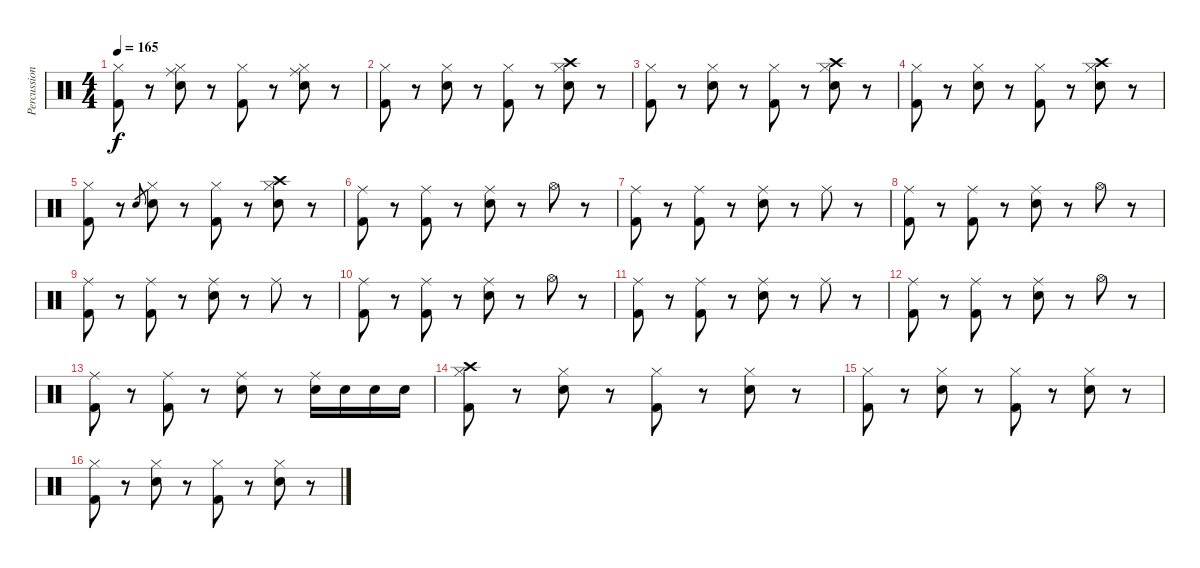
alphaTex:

\track ("Percussions" "Percussion") {instrument percussion}
\staff {score}
\articulation defaults
\ts (4 4)
\tempo 165
\clef neutral
\ks c
("Kick (hit) 2" "Hi-Hat (closed)").8{dy f} r.8 ("Electric Snare (hit)" "Ride (middle)" "Hi-Hat (closed)").8 r.8 ("Kick (hit) 2" "Hi-Hat (closed)").8 r.8 ("Electric Snare (hit)" "Ride (middle)" "Hi-Hat (closed)").8 r.8 |
("Kick (hit) 2" "Hi-Hat (closed)").8 r.8 ("Electric Snare (hit)" "Hi-Hat (closed)").8 r.8 ("Kick (hit) 2" "Hi-Hat (closed)").8 r.8 ("Electric Snare (hit)" "Crash high (hit)" "Hi-Hat (closed)").8 r.8 |
("Kick (hit) 2" "Hi-Hat (closed)").8 r.8 ("Electric Snare (hit)" "Hi-Hat (closed)").8 r.8 ("Kick (hit) 2" "Hi-Hat (closed)").8 r.8 ("Electric Snare (hit)" "Crash high (hit)" "Hi-Hat (closed)").8 r.8 |
("Kick (hit) 2" "Hi-Hat (closed)").8 r.8 ("Electric Snare (hit)" "Hi-Hat (closed)").8 r.8 ("Kick (hit) 2" "Hi-Hat (closed)").8 r.8 ("Electric Snare (hit)" "Crash high (hit)" "Hi-Hat (closed)").8 r.8 |
("Kick (hit) 2" "Hi-Hat (closed)").8 r.8 "Electric Snare (hit)".8{gr} ("Electric Snare (hit)" "Hi-Hat (closed)").8 r.8 ("Kick (hit) 2" "Hi-Hat (closed)").8 r.8 ("Electric Snare (hit)" "Crash high (hit)" "Hi-Hat (closed)").8 r.8 |
("Kick (hit) 2" "Ride (middle)").8 r.8 ("Kick (hit) 2" "Ride (middle)").8 r.8 ("Electric Snare (hit)" "Ride (middle)").8 r.8 "Hi-Hat (open)".8 r.8 |
("Kick (hit) 2" "Ride (middle)").8 r.8 ("Kick (hit) 2" "Ride (middle)").8 r.8 ("Electric Snare (hit)" "Ride (middle)").8 r.8 "Ride (middle)".8 r.8 |
("Kick (hit) 2" "Ride (middle)").8 r.8 ("Kick (hit) 2" "Ride (middle)").8 r.8 ("Electric Snare (hit)" "Ride (middle)").8 r.8 "Hi-Hat (open)".8 r.8 |
("Kick (hit) 2" "Ride (middle)").8 r.8 ("Kick (hit) 2" "Ride (middle)").8 r.8 ("Electric Snare (hit)" "Ride (middle)").8 r.8 "Ride (middle)".8 r.8 |
("Kick (hit) 2" "Ride (middle)").8 r.8 ("Kick (hit) 2" "Ride (middle)").8 r.8 ("Electric Snare (hit)" "Ride (middle)").8 r.8 "Hi-Hat (open)".8 r.8 |
("Kick (hit) 2" "Ride (middle)").8 r.8 ("Kick (hit) 2" "Ride (middle)").8 r.8 ("Electric Snare (hit)" "Ride (middle)").8 r.8 "Ride (middle)".8 r.8 |
("Kick (hit) 2" "Ride (middle)").8 r.8 ("Kick (hit) 2" "Ride (middle)").8 r.8 ("Electric Snare (hit)" "Ride (middle)").8 r.8 "Hi-Hat (open)".8 r.8 |
("Kick (hit) 2" "Ride (middle)").8 r.8 ("Kick (hit) 2" "Ride (middle)").8 r.8 ("Electric Snare (hit)" "Ride (middle)").8 r.8 ("Electric Snare (hit)" "Ride (middle)").16 "Electric Snare (hit)".16 "Electric Snare (hit)".16 "Electric Snare (hit)".16 |
("Kick (hit) 2" "Crash high (hit)" "Hi-Hat (closed)").8 r.8 ("Electric Snare (hit)" "Hi-Hat (closed)").8 r.8 ("Kick (hit) 2" "Hi-Hat (closed)").8 r.8 ("Electric Snare (hit)" "Hi-Hat (closed)").8 r.8 |
("Kick (hit) 2" "Hi-Hat (closed)").8 r.8 ("Electric Snare (hit)" "Hi-Hat (closed)").8 r.8 ("Kick (hit) 2" "Hi-Hat (closed)").8 r.8 ("Electric Snare (hit)" "Hi-Hat (closed)").8 r.8 |
("Kick (hit) 2" "Hi-Hat (closed)").8 r.8 ("Electric Snare (hit)" "Hi-Hat (closed)").8 r.8 ("Kick (hit) 2" "Hi-Hat (closed)").8 r.8 ("Electric Snare (hit)" "Hi-Hat (closed)").8 r.8
